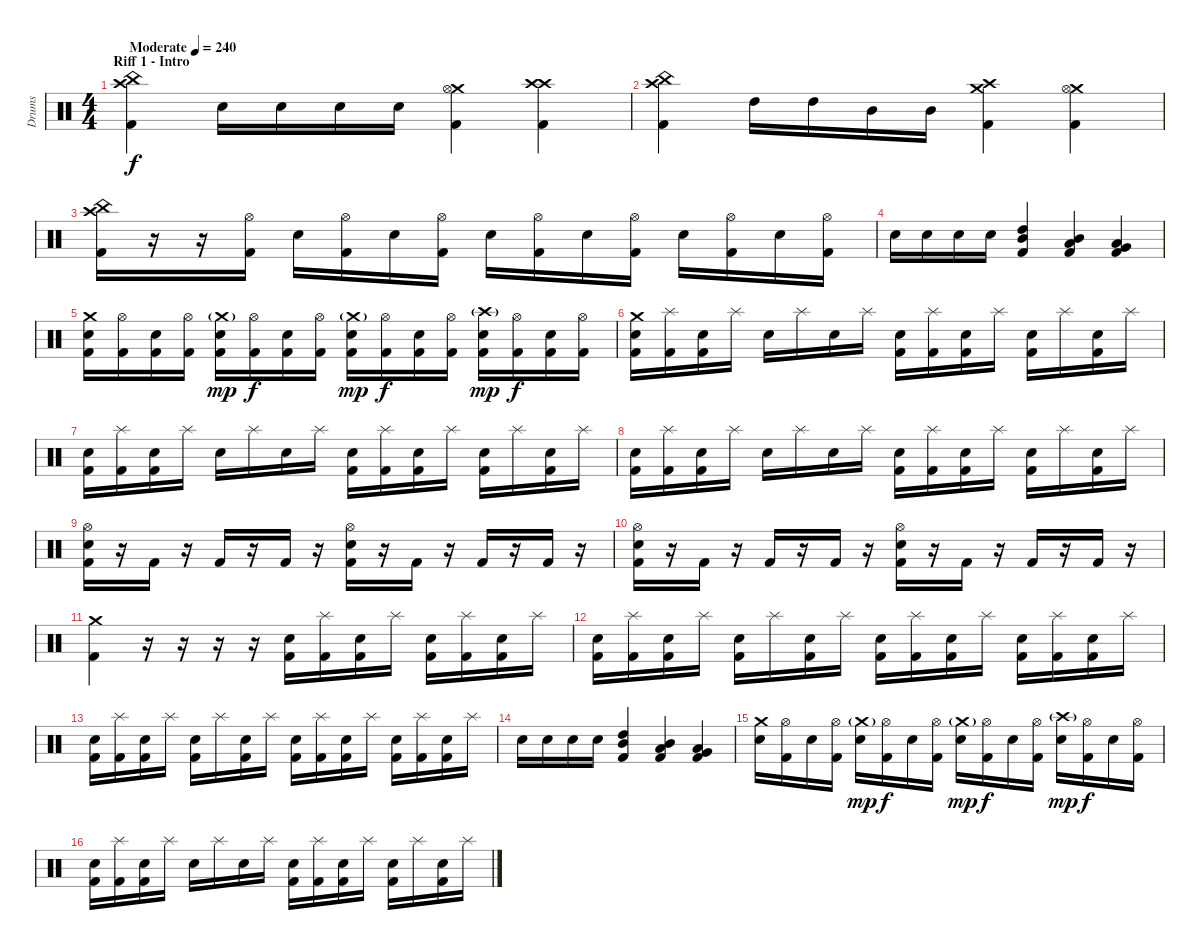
\track ("Drums" "Drums") {instrument percussion}
\staff {score}
\articulation defaults
\ts (4 4)
\section ("" "Riff 1 - Intro")
\tempo (240 "Moderate")
\clef neutral
\ks c
("China (hit)" "Crash high (hit)" "Kick (hit) 2").4{dy f} "Electric Snare (hit)".16 "Electric Snare (hit)".16 "Electric Snare (hit)".16 "Electric Snare (hit)".16 ("Crash medium (hit)" "Hi-Hat (open)" "Kick (hit) 2").4 ("Crash high (hit)" "Crash high (hit)" "Kick (hit) 2").4 |
("Crash high (hit)" "China (hit)" "Kick (hit) 2").4 "High Tom (hit)".16 "High Tom (hit)".16 "Mid Tom (hit)".16 "Mid Tom (hit)".16 ("Crash medium (hit)" "Crash high (hit)" "Kick (hit) 2").4 ("Crash medium (hit)" "Hi-Hat (open)" "Kick (hit) 2").4 |
("Crash high (hit)" "China (hit)" "Kick (hit) 2").16 r.16 r.16 ("Hi-Hat (open)" "Kick (hit) 2").16 "Electric Snare (hit)".16 ("Hi-Hat (open)" "Kick (hit) 2").16 "Electric Snare (hit)".16 ("Hi-Hat (open)" "Kick (hit) 2").16 "Electric Snare (hit)".16 ("Hi-Hat (open)" "Kick (hit) 2").16 "Electric Snare (hit)".16 ("Hi-Hat (open)" "Kick (hit) 2").16 "Electric Snare (hit)".16 ("Hi-Hat (open)" "Kick (hit) 2").16 "Electric Snare (hit)".16 ("Hi-Hat (open)" "Kick (hit) 2").16 |
"Electric Snare (hit)".16 "Electric Snare (hit)".16 "Electric Snare (hit)".16 "Electric Snare (hit)".16 ("Mid Tom (hit)" "High Tom (hit)" "Kick (hit) 2").4 ("Low Tom (hit)" "Mid Tom (hit)" "Kick (hit) 2").4 ("Very Low Tom (hit)" "Low Tom (hit)" "Kick (hit) 2").4 |
("Crash medium (hit)" "Electric Snare (hit)" "Kick (hit) 2").16 ("Hi-Hat (open)" "Kick (hit) 2").16 ("Electric Snare (hit)" "Kick (hit) 2").16 ("Hi-Hat (open)" "Kick (hit) 2").16 ("Crash medium (hit)"{g} "Electric Snare (hit)" "Kick (hit) 2").16{dy mp} ("Hi-Hat (open)" "Kick (hit) 2").16{dy f} ("Electric Snare (hit)" "Kick (hit) 2").16 ("Hi-Hat (open)" "Kick (hit) 2").16 ("Crash medium (hit)"{g} "Electric Snare (hit)" "Kick (hit) 2").16{dy mp} ("Hi-Hat (open)" "Kick (hit) 2").16{dy f} ("Electric Snare (hit)" "Kick (hit) 2").16 ("Hi-Hat (open)" "Kick (hit) 2").16 ("Crash high (hit)"{g} "Electric Snare (hit)" "Kick (hit) 2").16{dy mp} ("Hi-Hat (open)" "Kick (hit) 2").16{dy f} ("Electric Snare (hit)" "Kick (hit) 2").16 ("Hi-Hat (open)" "Kick (hit) 2").16 |
("Crash medium (hit)" "Electric Snare (hit)" "Kick (hit) 2").16 ("Splash (hit)" "Kick (hit) 2").16 ("Electric Snare (hit)" "Kick (hit) 2").16 "Splash (hit)".16 "Electric Snare (hit)".16 "Splash (hit)".16 "Electric Snare (hit)".16 "Splash (hit)".16 ("Electric Snare (hit)" "Kick (hit) 2").16 ("Splash (hit)" "Kick (hit) 2").16 ("Electric Snare (hit)" "Kick (hit) 2").16 "Splash (hit)".16 ("Electric Snare (hit)" "Kick (hit) 2").16 "Splash (hit)".16 ("Electric Snare (hit)" "Kick (hit) 2").16 "Splash (hit)".16 |
("Electric Snare (hit)" "Kick (hit) 2").16 ("Splash (hit)" "Kick (hit) 2").16 ("Electric Snare (hit)" "Kick (hit) 2").16 "Splash (hit)".16 "Electric Snare (hit)".16 "Splash (hit)".16 "Electric Snare (hit)".16 "Splash (hit)".16 ("Electric Snare (hit)" "Kick (hit) 2").16 ("Splash (hit)" "Kick (hit) 2").16 ("Electric Snare (hit)" "Kick (hit) 2").16 "Splash (hit)".16 ("Electric Snare (hit)" "Kick (hit) 2").16 "Splash (hit)".16 ("Electric Snare (hit)" "Kick (hit) 2").16 "Splash (hit)".16 |
("Electric Snare (hit)" "Kick (hit) 2").16 ("Splash (hit)" "Kick (hit) 2").16 ("Electric Snare (hit)" "Kick (hit) 2").16 "Splash (hit)".16 "Electric Snare (hit)".16 "Splash (hit)".16 "Electric Snare (hit)".16 "Splash (hit)".16 ("Electric Snare (hit)" "Kick (hit) 2").16 ("Splash (hit)" "Kick (hit) 2").16 ("Electric Snare (hit)" "Kick (hit) 2").16 "Splash (hit)".16 ("Electric Snare (hit)" "Kick (hit) 2").16 "Splash (hit)".16 ("Electric Snare (hit)" "Kick (hit) 2").16 "Splash (hit)".16 |
("Hi-Hat (open)" "Electric Snare (hit)" "Kick (hit) 2").16 r.16 "Kick (hit) 2".16 r.16 "Kick (hit) 2".16 r.16 "Kick (hit) 2".16 r.16 ("Hi-Hat (open)" "Electric Snare (hit)" "Kick (hit) 2").16 r.16 "Kick (hit) 2".16 r.16 "Kick (hit) 2".16 r.16 "Kick (hit) 2".16 r.16 |
("Hi-Hat (open)" "Electric Snare (hit)" "Kick (hit) 2").16 r.16 "Kick (hit) 2".16 r.16 "Kick (hit) 2".16 r.16 "Kick (hit) 2".16 r.16 ("Hi-Hat (open)" "Electric Snare (hit)" "Kick (hit) 2").16 r.16 "Kick (hit) 2".16 r.16 "Kick (hit) 2".16 r.16 "Kick (hit) 2".16 r.16 |
("Crash medium (hit)" "Kick (hit) 2").4 r.16 r.16 r.16 r.16 ("Electric Snare (hit)" "Kick (hit) 2").16 ("Splash (hit)" "Kick (hit) 2").16 ("Electric Snare (hit)" "Kick (hit) 2").16 "Splash (hit)".16 ("Electric Snare (hit)" "Kick (hit) 2").16 ("Splash (hit)" "Kick (hit) 2").16 ("Electric Snare (hit)" "Kick (hit) 2").16 "Splash (hit)".16 |
("Electric Snare (hit)" "Kick (hit) 2").16 ("Splash (hit)" "Kick (hit) 2").16 ("Electric Snare (hit)" "Kick (hit) 2").16 "Splash (hit)".16 ("Electric Snare (hit)" "Kick (hit) 2").16 "Splash (hit)".16 ("Electric Snare (hit)" "Kick (hit) 2").16 "Splash (hit)".16 ("Electric Snare (hit)" "Kick (hit) 2").16 ("Splash (hit)" "Kick (hit) 2").16 ("Electric Snare (hit)" "Kick (hit) 2").16 "Splash (hit)".16 ("Electric Snare (hit)" "Kick (hit) 2").16 ("Splash (hit)" "Kick (hit) 2").16 ("Electric Snare (hit)" "Kick (hit) 2").16 "Splash (hit)".16 |
("Electric Snare (hit)" "Kick (hit) 2").16 ("Splash (hit)" "Kick (hit) 2").16 ("Electric Snare (hit)" "Kick (hit) 2").16 "Splash (hit)".16 ("Electric Snare (hit)" "Kick (hit) 2").16 "Splash (hit)".16 ("Electric Snare (hit)" "Kick (hit) 2").16 "Splash (hit)".16 ("Electric Snare (hit)" "Kick (hit) 2").16 ("Splash (hit)" "Kick (hit) 2").16 ("Electric Snare (hit)" "Kick (hit) 2").16 "Splash (hit)".16 ("Electric Snare (hit)" "Kick (hit) 2").16 ("Splash (hit)" "Kick (hit) 2").16 ("Electric Snare (hit)" "Kick (hit) 2").16 "Splash (hit)".16 |
"Electric Snare (hit)".16 "Electric Snare (hit)".16 "Electric Snare (hit)".16 "Electric Snare (hit)".16 ("Mid Tom (hit)" "High Tom (hit)" "Kick (hit) 2").4 ("Low Tom (hit)" "Mid Tom (hit)" "Kick (hit) 2").4 ("Very Low Tom (hit)" "Low Tom (hit)" "Kick (hit) 2").4 |
("Crash medium (hit)" "Electric Snare (hit)").16 ("Hi-Hat (open)" "Kick (hit) 2").16 "Electric Snare (hit)".16 ("Hi-Hat (open)" "Kick (hit) 2").16 ("Crash medium (hit)"{g} "Electric Snare (hit)").16{dy mp} ("Hi-Hat (open)" "Kick (hit) 2").16{dy f} "Electric Snare (hit)".16 ("Hi-Hat (open)" "Kick (hit) 2").16 ("Crash medium (hit)"{g} "Electric Snare (hit)").16{dy mp} ("Hi-Hat (open)" "Kick (hit) 2").16{dy f} "Electric Snare (hit)".16 ("Hi-Hat (open)" "Kick (hit) 2").16 ("Crash high (hit)"{g} "Electric Snare (hit)").16{dy mp} ("Hi-Hat (open)" "Kick (hit) 2").16{dy f} "Electric Snare (hit)".16 ("Hi-Hat (open)" "Kick (hit) 2").16 |
("Electric Snare (hit)" "Kick (hit) 2").16 ("Splash (hit)" "Kick (hit) 2").16 ("Electric Snare (hit)" "Kick (hit) 2").16 "Splash (hit)".16 "Electric Snare (hit)".16 "Splash (hit)".16 "Electric Snare (hit)".16 "Splash (hit)".16 ("Electric Snare (hit)" "Kick (hit) 2").16 ("Splash (hit)" "Kick (hit) 2").16 ("Electric Snare (hit)" "Kick (hit) 2").16 "Splash (hit)".16 ("Electric Snare (hit)" "Kick (hit) 2").16 "Splash (hit)".16 ("Electric Snare (hit)" "Kick (hit) 2").16 "Splash (hit)".16
